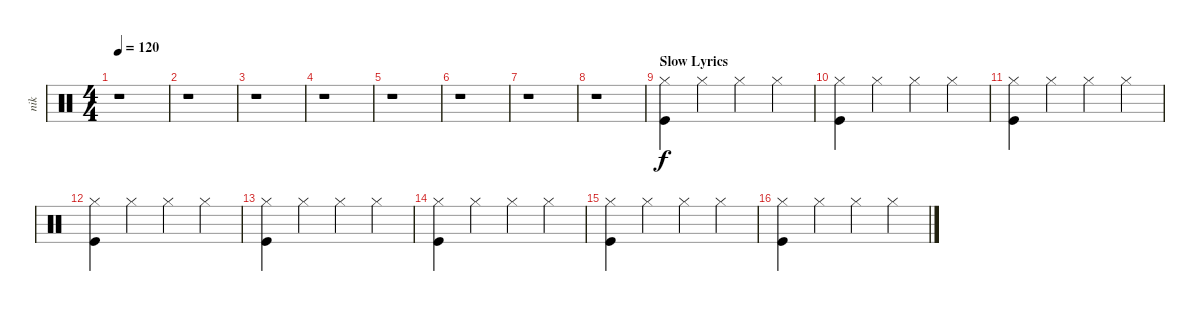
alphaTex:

\track ("nik" "nik") {instrument percussion}
\staff {score}
\articulation defaults
\ts (4 4)
\tempo 120
\clef neutral
\ks c
r.1{dy f} |
r.1 |
r.1 |
r.1 |
r.1 |
r.1 |
r.1 |
r.1 |
\section ("" "Slow Lyrics")
("Hi-Hat (closed)" "Kick (hit)").4 "Hi-Hat (closed)".4 "Hi-Hat (closed)".4 "Hi-Hat (closed)".4 |
("Hi-Hat (closed)" "Kick (hit)").4 "Hi-Hat (closed)".4 "Hi-Hat (closed)".4 "Hi-Hat (closed)".4 |
("Hi-Hat (closed)" "Kick (hit)").4 "Hi-Hat (closed)".4 "Hi-Hat (closed)".4 "Hi-Hat (closed)".4 |
("Hi-Hat (closed)" "Kick (hit)").4 "Hi-Hat (closed)".4 "Hi-Hat (closed)".4 "Hi-Hat (closed)".4 |
("Hi-Hat (closed)" "Kick (hit)").4 "Hi-Hat (closed)".4 "Hi-Hat (closed)".4 "Hi-Hat (closed)".4 |
("Hi-Hat (closed)" "Kick (hit)").4 "Hi-Hat (closed)".4 "Hi-Hat (closed)".4 "Hi-Hat (closed)".4 |
("Hi-Hat (closed)" "Kick (hit)").4 "Hi-Hat (closed)".4 "Hi-Hat (closed)".4 "Hi-Hat (closed)".4 |
("Hi-Hat (closed)" "Kick (hit)").4 "Hi-Hat (closed)".4 "Hi-Hat (closed)".4 "Hi-Hat (closed)".4
